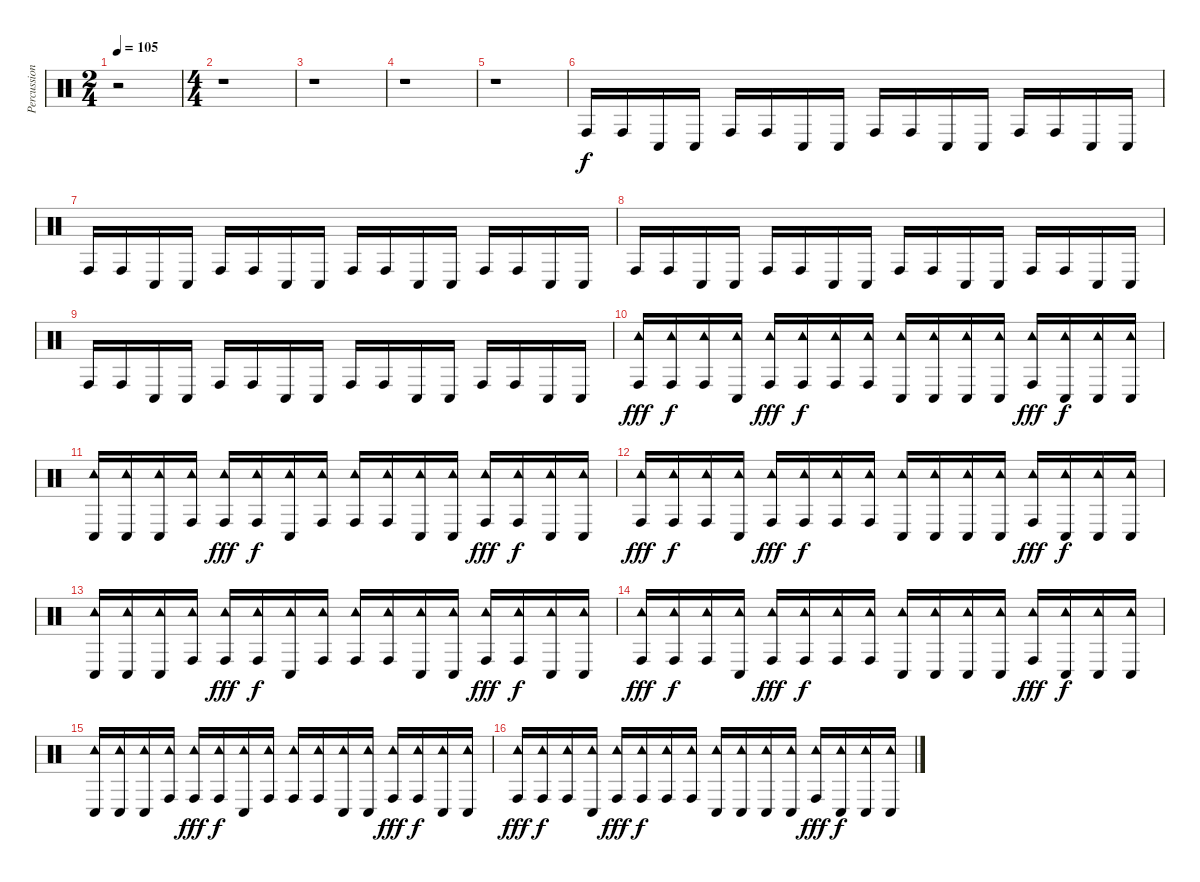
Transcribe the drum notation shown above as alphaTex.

\track ("Percussion" "Percussion") {instrument percussion}
\staff {score}
\articulation defaults
\ts (2 4)
\tempo 105
\clef neutral
\ks c
r.2{dy f} |
\ts (4 4)
r.1 |
r.1 |
r.1 |
r.1 |
"Conga high (hit)".16 "Conga high (hit)".16 "Conga low (hit)".16 "Conga low (hit)".16 "Conga high (hit)".16 "Conga high (hit)".16 "Conga low (hit)".16 "Conga low (hit)".16 "Conga high (hit)".16 "Conga high (hit)".16 "Conga low (hit)".16 "Conga low (hit)".16 "Conga high (hit)".16 "Conga high (hit)".16 "Conga low (hit)".16 "Conga low (hit)".16 |
"Conga high (hit)".16 "Conga high (hit)".16 "Conga low (hit)".16 "Conga low (hit)".16 "Conga high (hit)".16 "Conga high (hit)".16 "Conga low (hit)".16 "Conga low (hit)".16 "Conga high (hit)".16 "Conga high (hit)".16 "Conga low (hit)".16 "Conga low (hit)".16 "Conga high (hit)".16 "Conga high (hit)".16 "Conga low (hit)".16 "Conga low (hit)".16 |
"Conga high (hit)".16 "Conga high (hit)".16 "Conga low (hit)".16 "Conga low (hit)".16 "Conga high (hit)".16 "Conga high (hit)".16 "Conga low (hit)".16 "Conga low (hit)".16 "Conga high (hit)".16 "Conga high (hit)".16 "Conga low (hit)".16 "Conga low (hit)".16 "Conga high (hit)".16 "Conga high (hit)".16 "Conga low (hit)".16 "Conga low (hit)".16 |
"Conga high (hit)".16 "Conga high (hit)".16 "Conga low (hit)".16 "Conga low (hit)".16 "Conga high (hit)".16 "Conga high (hit)".16 "Conga low (hit)".16 "Conga low (hit)".16 "Conga high (hit)".16 "Conga high (hit)".16 "Conga low (hit)".16 "Conga low (hit)".16 "Conga high (hit)".16 "Conga high (hit)".16 "Conga low (hit)".16 "Conga low (hit)".16 |
("Tambourine (hit)" "Conga high (hit)").16{dy fff} ("Tambourine (hit)" "Conga high (hit)").16{dy f} ("Tambourine (hit)" "Conga high (hit)").16 ("Tambourine (hit)" "Conga low (hit)").16 ("Tambourine (hit)" "Conga high (hit)").16{dy fff} ("Tambourine (hit)" "Conga high (hit)").16{dy f} ("Tambourine (hit)" "Conga high (hit)").16 ("Tambourine (hit)" "Conga high (hit)").16 ("Tambourine (hit)" "Conga low (hit)").16 ("Tambourine (hit)" "Conga low (hit)").16 ("Tambourine (hit)" "Conga low (hit)").16 ("Tambourine (hit)" "Conga low (hit)").16 ("Tambourine (hit)" "Conga high (hit)").16{dy fff} ("Tambourine (hit)" "Conga low (hit)").16{dy f} ("Tambourine (hit)" "Conga low (hit)").16 ("Tambourine (hit)" "Conga low (hit)").16 |
("Tambourine (hit)" "Conga low (hit)").16 ("Tambourine (hit)" "Conga low (hit)").16 ("Tambourine (hit)" "Conga low (hit)").16 ("Tambourine (hit)" "Conga high (hit)").16 ("Tambourine (hit)" "Conga high (hit)").16{dy fff} ("Tambourine (hit)" "Conga high (hit)").16{dy f} ("Tambourine (hit)" "Conga low (hit)").16 ("Tambourine (hit)" "Conga high (hit)").16 ("Tambourine (hit)" "Conga high (hit)").16 ("Tambourine (hit)" "Conga high (hit)").16 ("Tambourine (hit)" "Conga low (hit)").16 ("Tambourine (hit)" "Conga low (hit)").16 ("Tambourine (hit)" "Conga high (hit)").16{dy fff} ("Tambourine (hit)" "Conga high (hit)").16{dy f} ("Tambourine (hit)" "Conga low (hit)").16 ("Tambourine (hit)" "Conga low (hit)").16 |
("Tambourine (hit)" "Conga high (hit)").16{dy fff} ("Tambourine (hit)" "Conga high (hit)").16{dy f} ("Tambourine (hit)" "Conga high (hit)").16 ("Tambourine (hit)" "Conga low (hit)").16 ("Tambourine (hit)" "Conga high (hit)").16{dy fff} ("Tambourine (hit)" "Conga high (hit)").16{dy f} ("Tambourine (hit)" "Conga high (hit)").16 ("Tambourine (hit)" "Conga high (hit)").16 ("Tambourine (hit)" "Conga low (hit)").16 ("Tambourine (hit)" "Conga low (hit)").16 ("Tambourine (hit)" "Conga low (hit)").16 ("Tambourine (hit)" "Conga low (hit)").16 ("Tambourine (hit)" "Conga high (hit)").16{dy fff} ("Tambourine (hit)" "Conga low (hit)").16{dy f} ("Tambourine (hit)" "Conga low (hit)").16 ("Tambourine (hit)" "Conga low (hit)").16 |
("Tambourine (hit)" "Conga low (hit)").16 ("Tambourine (hit)" "Conga low (hit)").16 ("Tambourine (hit)" "Conga low (hit)").16 ("Tambourine (hit)" "Conga high (hit)").16 ("Tambourine (hit)" "Conga high (hit)").16{dy fff} ("Tambourine (hit)" "Conga high (hit)").16{dy f} ("Tambourine (hit)" "Conga low (hit)").16 ("Tambourine (hit)" "Conga high (hit)").16 ("Tambourine (hit)" "Conga high (hit)").16 ("Tambourine (hit)" "Conga high (hit)").16 ("Tambourine (hit)" "Conga low (hit)").16 ("Tambourine (hit)" "Conga low (hit)").16 ("Tambourine (hit)" "Conga high (hit)").16{dy fff} ("Tambourine (hit)" "Conga high (hit)").16{dy f} ("Tambourine (hit)" "Conga low (hit)").16 ("Tambourine (hit)" "Conga low (hit)").16 |
("Tambourine (hit)" "Conga high (hit)").16{dy fff} ("Tambourine (hit)" "Conga high (hit)").16{dy f} ("Tambourine (hit)" "Conga high (hit)").16 ("Tambourine (hit)" "Conga low (hit)").16 ("Tambourine (hit)" "Conga high (hit)").16{dy fff} ("Tambourine (hit)" "Conga high (hit)").16{dy f} ("Tambourine (hit)" "Conga high (hit)").16 ("Tambourine (hit)" "Conga high (hit)").16 ("Tambourine (hit)" "Conga low (hit)").16 ("Tambourine (hit)" "Conga low (hit)").16 ("Tambourine (hit)" "Conga low (hit)").16 ("Tambourine (hit)" "Conga low (hit)").16 ("Tambourine (hit)" "Conga high (hit)").16{dy fff} ("Tambourine (hit)" "Conga low (hit)").16{dy f} ("Tambourine (hit)" "Conga low (hit)").16 ("Tambourine (hit)" "Conga low (hit)").16 |
("Tambourine (hit)" "Conga low (hit)").16 ("Tambourine (hit)" "Conga low (hit)").16 ("Tambourine (hit)" "Conga low (hit)").16 ("Tambourine (hit)" "Conga high (hit)").16 ("Tambourine (hit)" "Conga high (hit)").16{dy fff} ("Tambourine (hit)" "Conga high (hit)").16{dy f} ("Tambourine (hit)" "Conga low (hit)").16 ("Tambourine (hit)" "Conga high (hit)").16 ("Tambourine (hit)" "Conga high (hit)").16 ("Tambourine (hit)" "Conga high (hit)").16 ("Tambourine (hit)" "Conga low (hit)").16 ("Tambourine (hit)" "Conga low (hit)").16 ("Tambourine (hit)" "Conga high (hit)").16{dy fff} ("Tambourine (hit)" "Conga high (hit)").16{dy f} ("Tambourine (hit)" "Conga low (hit)").16 ("Tambourine (hit)" "Conga low (hit)").16 |
("Tambourine (hit)" "Conga high (hit)").16{dy fff} ("Tambourine (hit)" "Conga high (hit)").16{dy f} ("Tambourine (hit)" "Conga high (hit)").16 ("Tambourine (hit)" "Conga low (hit)").16 ("Tambourine (hit)" "Conga high (hit)").16{dy fff} ("Tambourine (hit)" "Conga high (hit)").16{dy f} ("Tambourine (hit)" "Conga high (hit)").16 ("Tambourine (hit)" "Conga high (hit)").16 ("Tambourine (hit)" "Conga low (hit)").16 ("Tambourine (hit)" "Conga low (hit)").16 ("Tambourine (hit)" "Conga low (hit)").16 ("Tambourine (hit)" "Conga low (hit)").16 ("Tambourine (hit)" "Conga high (hit)").16{dy fff} ("Tambourine (hit)" "Conga low (hit)").16{dy f} ("Tambourine (hit)" "Conga low (hit)").16 ("Tambourine (hit)" "Conga low (hit)").16
